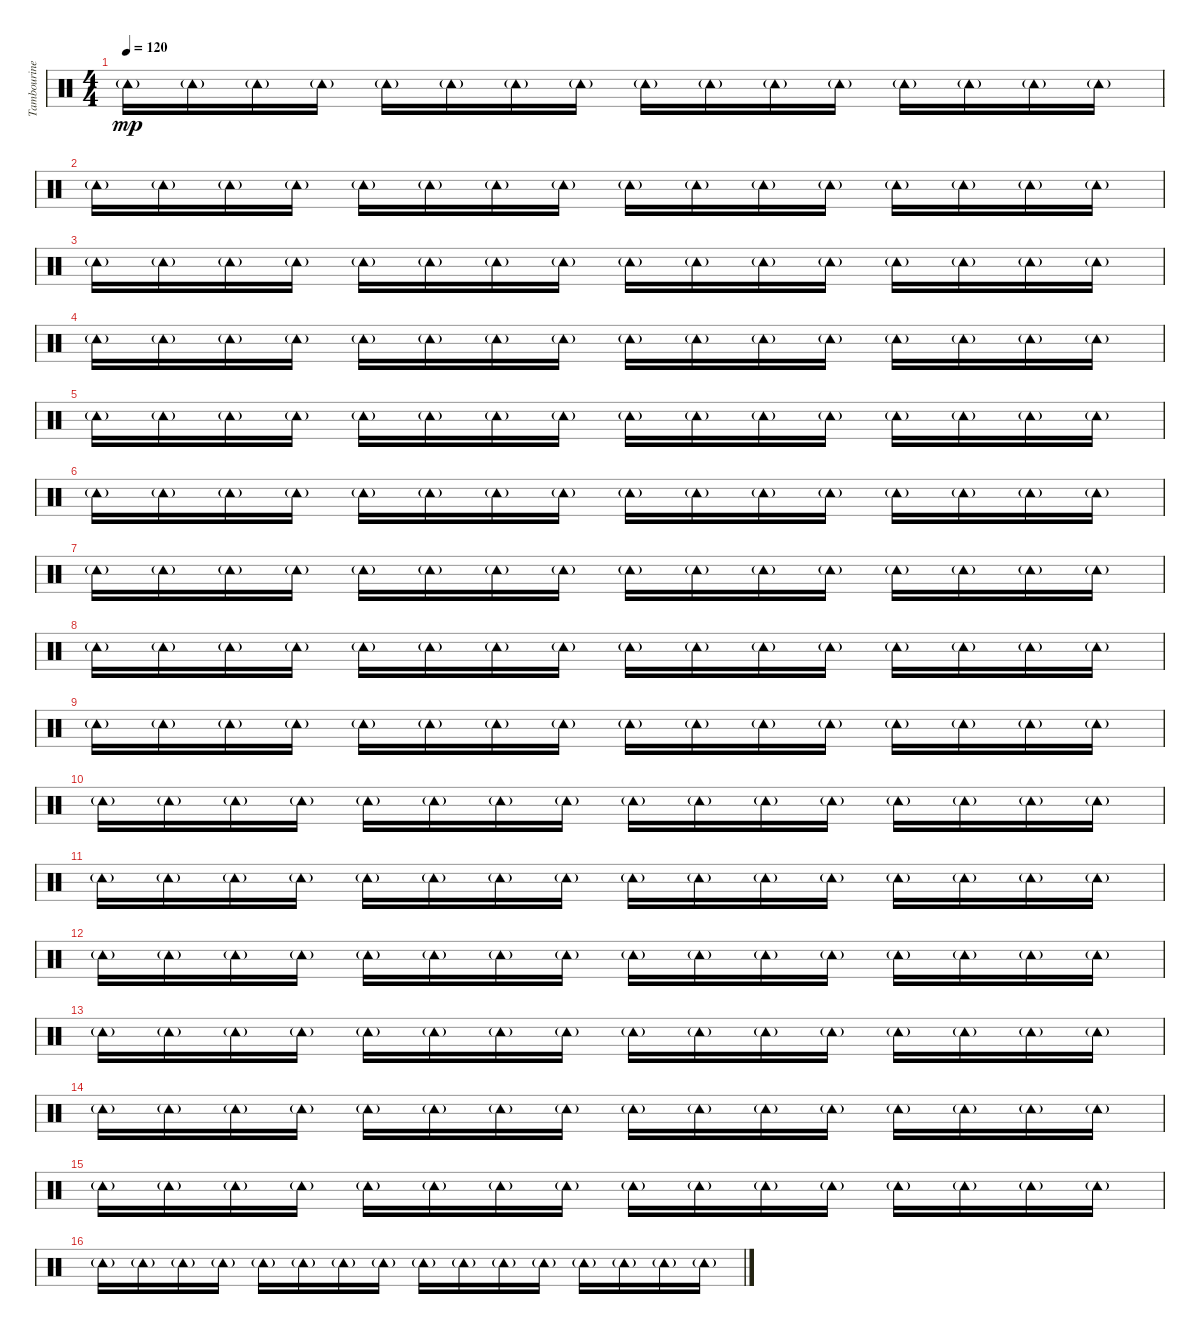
\track ("Tambourine" "Tambourine") {instrument percussion}
\staff {score}
\articulation defaults
\ts (4 4)
\tempo 120
\clef neutral
\ks c "Tambourine (hit)"{g}.16{dy mp} "Tambourine (hit)"{g}.16 "Tambourine (hit)"{g}.16 "Tambourine (hit)"{g}.16 "Tambourine (hit)"{g}.16 "Tambourine (hit)"{g}.16 "Tambourine (hit)"{g}.16 "Tambourine (hit)"{g}.16 "Tambourine (hit)"{g}.16 "Tambourine (hit)"{g}.16 "Tambourine (hit)"{g}.16 "Tambourine (hit)"{g}.16 "Tambourine (hit)"{g}.16 "Tambourine (hit)"{g}.16 "Tambourine (hit)"{g}.16 "Tambourine (hit)"{g}.16
|
"Tambourine (hit)"{g}.16 "Tambourine (hit)"{g}.16 "Tambourine (hit)"{g}.16 "Tambourine (hit)"{g}.16 "Tambourine (hit)"{g}.16 "Tambourine (hit)"{g}.16 "Tambourine (hit)"{g}.16 "Tambourine (hit)"{g}.16 "Tambourine (hit)"{g}.16 "Tambourine (hit)"{g}.16 "Tambourine (hit)"{g}.16 "Tambourine (hit)"{g}.16 "Tambourine (hit)"{g}.16 "Tambourine (hit)"{g}.16 "Tambourine (hit)"{g}.16 "Tambourine (hit)"{g}.16 |
"Tambourine (hit)"{g}.16 "Tambourine (hit)"{g}.16 "Tambourine (hit)"{g}.16 "Tambourine (hit)"{g}.16 "Tambourine (hit)"{g}.16 "Tambourine (hit)"{g}.16 "Tambourine (hit)"{g}.16 "Tambourine (hit)"{g}.16 "Tambourine (hit)"{g}.16 "Tambourine (hit)"{g}.16 "Tambourine (hit)"{g}.16 "Tambourine (hit)"{g}.16 "Tambourine (hit)"{g}.16 "Tambourine (hit)"{g}.16 "Tambourine (hit)"{g}.16 "Tambourine (hit)"{g}.16 |
"Tambourine (hit)"{g}.16 "Tambourine (hit)"{g}.16 "Tambourine (hit)"{g}.16 "Tambourine (hit)"{g}.16 "Tambourine (hit)"{g}.16 "Tambourine (hit)"{g}.16 "Tambourine (hit)"{g}.16 "Tambourine (hit)"{g}.16 "Tambourine (hit)"{g}.16 "Tambourine (hit)"{g}.16 "Tambourine (hit)"{g}.16 "Tambourine (hit)"{g}.16 "Tambourine (hit)"{g}.16 "Tambourine (hit)"{g}.16 "Tambourine (hit)"{g}.16 "Tambourine (hit)"{g}.16 |
"Tambourine (hit)"{g}.16 "Tambourine (hit)"{g}.16 "Tambourine (hit)"{g}.16 "Tambourine (hit)"{g}.16 "Tambourine (hit)"{g}.16 "Tambourine (hit)"{g}.16 "Tambourine (hit)"{g}.16 "Tambourine (hit)"{g}.16 "Tambourine (hit)"{g}.16 "Tambourine (hit)"{g}.16 "Tambourine (hit)"{g}.16 "Tambourine (hit)"{g}.16 "Tambourine (hit)"{g}.16 "Tambourine (hit)"{g}.16 "Tambourine (hit)"{g}.16 "Tambourine (hit)"{g}.16 |
"Tambourine (hit)"{g}.16 "Tambourine (hit)"{g}.16 "Tambourine (hit)"{g}.16 "Tambourine (hit)"{g}.16 "Tambourine (hit)"{g}.16 "Tambourine (hit)"{g}.16 "Tambourine (hit)"{g}.16 "Tambourine (hit)"{g}.16 "Tambourine (hit)"{g}.16 "Tambourine (hit)"{g}.16 "Tambourine (hit)"{g}.16 "Tambourine (hit)"{g}.16 "Tambourine (hit)"{g}.16 "Tambourine (hit)"{g}.16 "Tambourine (hit)"{g}.16 "Tambourine (hit)"{g}.16 |
"Tambourine (hit)"{g}.16 "Tambourine (hit)"{g}.16 "Tambourine (hit)"{g}.16 "Tambourine (hit)"{g}.16 "Tambourine (hit)"{g}.16 "Tambourine (hit)"{g}.16 "Tambourine (hit)"{g}.16 "Tambourine (hit)"{g}.16 "Tambourine (hit)"{g}.16 "Tambourine (hit)"{g}.16 "Tambourine (hit)"{g}.16 "Tambourine (hit)"{g}.16 "Tambourine (hit)"{g}.16 "Tambourine (hit)"{g}.16 "Tambourine (hit)"{g}.16 "Tambourine (hit)"{g}.16 |
"Tambourine (hit)"{g}.16 "Tambourine (hit)"{g}.16 "Tambourine (hit)"{g}.16 "Tambourine (hit)"{g}.16 "Tambourine (hit)"{g}.16 "Tambourine (hit)"{g}.16 "Tambourine (hit)"{g}.16 "Tambourine (hit)"{g}.16 "Tambourine (hit)"{g}.16 "Tambourine (hit)"{g}.16 "Tambourine (hit)"{g}.16 "Tambourine (hit)"{g}.16 "Tambourine (hit)"{g}.16 "Tambourine (hit)"{g}.16 "Tambourine (hit)"{g}.16 "Tambourine (hit)"{g}.16 |
"Tambourine (hit)"{g}.16 "Tambourine (hit)"{g}.16 "Tambourine (hit)"{g}.16 "Tambourine (hit)"{g}.16 "Tambourine (hit)"{g}.16 "Tambourine (hit)"{g}.16 "Tambourine (hit)"{g}.16 "Tambourine (hit)"{g}.16 "Tambourine (hit)"{g}.16 "Tambourine (hit)"{g}.16 "Tambourine (hit)"{g}.16 "Tambourine (hit)"{g}.16 "Tambourine (hit)"{g}.16 "Tambourine (hit)"{g}.16 "Tambourine (hit)"{g}.16 "Tambourine (hit)"{g}.16 |
"Tambourine (hit)"{g}.16 "Tambourine (hit)"{g}.16 "Tambourine (hit)"{g}.16 "Tambourine (hit)"{g}.16 "Tambourine (hit)"{g}.16 "Tambourine (hit)"{g}.16 "Tambourine (hit)"{g}.16 "Tambourine (hit)"{g}.16 "Tambourine (hit)"{g}.16 "Tambourine (hit)"{g}.16 "Tambourine (hit)"{g}.16 "Tambourine (hit)"{g}.16 "Tambourine (hit)"{g}.16 "Tambourine (hit)"{g}.16 "Tambourine (hit)"{g}.16 "Tambourine (hit)"{g}.16 |
"Tambourine (hit)"{g}.16 "Tambourine (hit)"{g}.16 "Tambourine (hit)"{g}.16 "Tambourine (hit)"{g}.16 "Tambourine (hit)"{g}.16 "Tambourine (hit)"{g}.16 "Tambourine (hit)"{g}.16 "Tambourine (hit)"{g}.16 "Tambourine (hit)"{g}.16 "Tambourine (hit)"{g}.16 "Tambourine (hit)"{g}.16 "Tambourine (hit)"{g}.16 "Tambourine (hit)"{g}.16 "Tambourine (hit)"{g}.16 "Tambourine (hit)"{g}.16 "Tambourine (hit)"{g}.16 |
"Tambourine (hit)"{g}.16 "Tambourine (hit)"{g}.16 "Tambourine (hit)"{g}.16 "Tambourine (hit)"{g}.16 "Tambourine (hit)"{g}.16 "Tambourine (hit)"{g}.16 "Tambourine (hit)"{g}.16 "Tambourine (hit)"{g}.16 "Tambourine (hit)"{g}.16 "Tambourine (hit)"{g}.16 "Tambourine (hit)"{g}.16 "Tambourine (hit)"{g}.16 "Tambourine (hit)"{g}.16 "Tambourine (hit)"{g}.16 "Tambourine (hit)"{g}.16 "Tambourine (hit)"{g}.16 |
"Tambourine (hit)"{g}.16 "Tambourine (hit)"{g}.16 "Tambourine (hit)"{g}.16 "Tambourine (hit)"{g}.16 "Tambourine (hit)"{g}.16 "Tambourine (hit)"{g}.16 "Tambourine (hit)"{g}.16 "Tambourine (hit)"{g}.16 "Tambourine (hit)"{g}.16 "Tambourine (hit)"{g}.16 "Tambourine (hit)"{g}.16 "Tambourine (hit)"{g}.16 "Tambourine (hit)"{g}.16 "Tambourine (hit)"{g}.16 "Tambourine (hit)"{g}.16 "Tambourine (hit)"{g}.16 |
"Tambourine (hit)"{g}.16 "Tambourine (hit)"{g}.16 "Tambourine (hit)"{g}.16 "Tambourine (hit)"{g}.16 "Tambourine (hit)"{g}.16 "Tambourine (hit)"{g}.16 "Tambourine (hit)"{g}.16 "Tambourine (hit)"{g}.16 "Tambourine (hit)"{g}.16 "Tambourine (hit)"{g}.16 "Tambourine (hit)"{g}.16 "Tambourine (hit)"{g}.16 "Tambourine (hit)"{g}.16 "Tambourine (hit)"{g}.16 "Tambourine (hit)"{g}.16 "Tambourine (hit)"{g}.16 |
"Tambourine (hit)"{g}.16 "Tambourine (hit)"{g}.16 "Tambourine (hit)"{g}.16 "Tambourine (hit)"{g}.16 "Tambourine (hit)"{g}.16 "Tambourine (hit)"{g}.16 "Tambourine (hit)"{g}.16 "Tambourine (hit)"{g}.16 "Tambourine (hit)"{g}.16 "Tambourine (hit)"{g}.16 "Tambourine (hit)"{g}.16 "Tambourine (hit)"{g}.16 "Tambourine (hit)"{g}.16 "Tambourine (hit)"{g}.16 "Tambourine (hit)"{g}.16 "Tambourine (hit)"{g}.16 |
"Tambourine (hit)"{g}.16 "Tambourine (hit)"{g}.16 "Tambourine (hit)"{g}.16 "Tambourine (hit)"{g}.16 "Tambourine (hit)"{g}.16 "Tambourine (hit)"{g}.16 "Tambourine (hit)"{g}.16 "Tambourine (hit)"{g}.16 "Tambourine (hit)"{g}.16 "Tambourine (hit)"{g}.16 "Tambourine (hit)"{g}.16 "Tambourine (hit)"{g}.16 "Tambourine (hit)"{g}.16 "Tambourine (hit)"{g}.16 "Tambourine (hit)"{g}.16 "Tambourine (hit)"{g}.16
